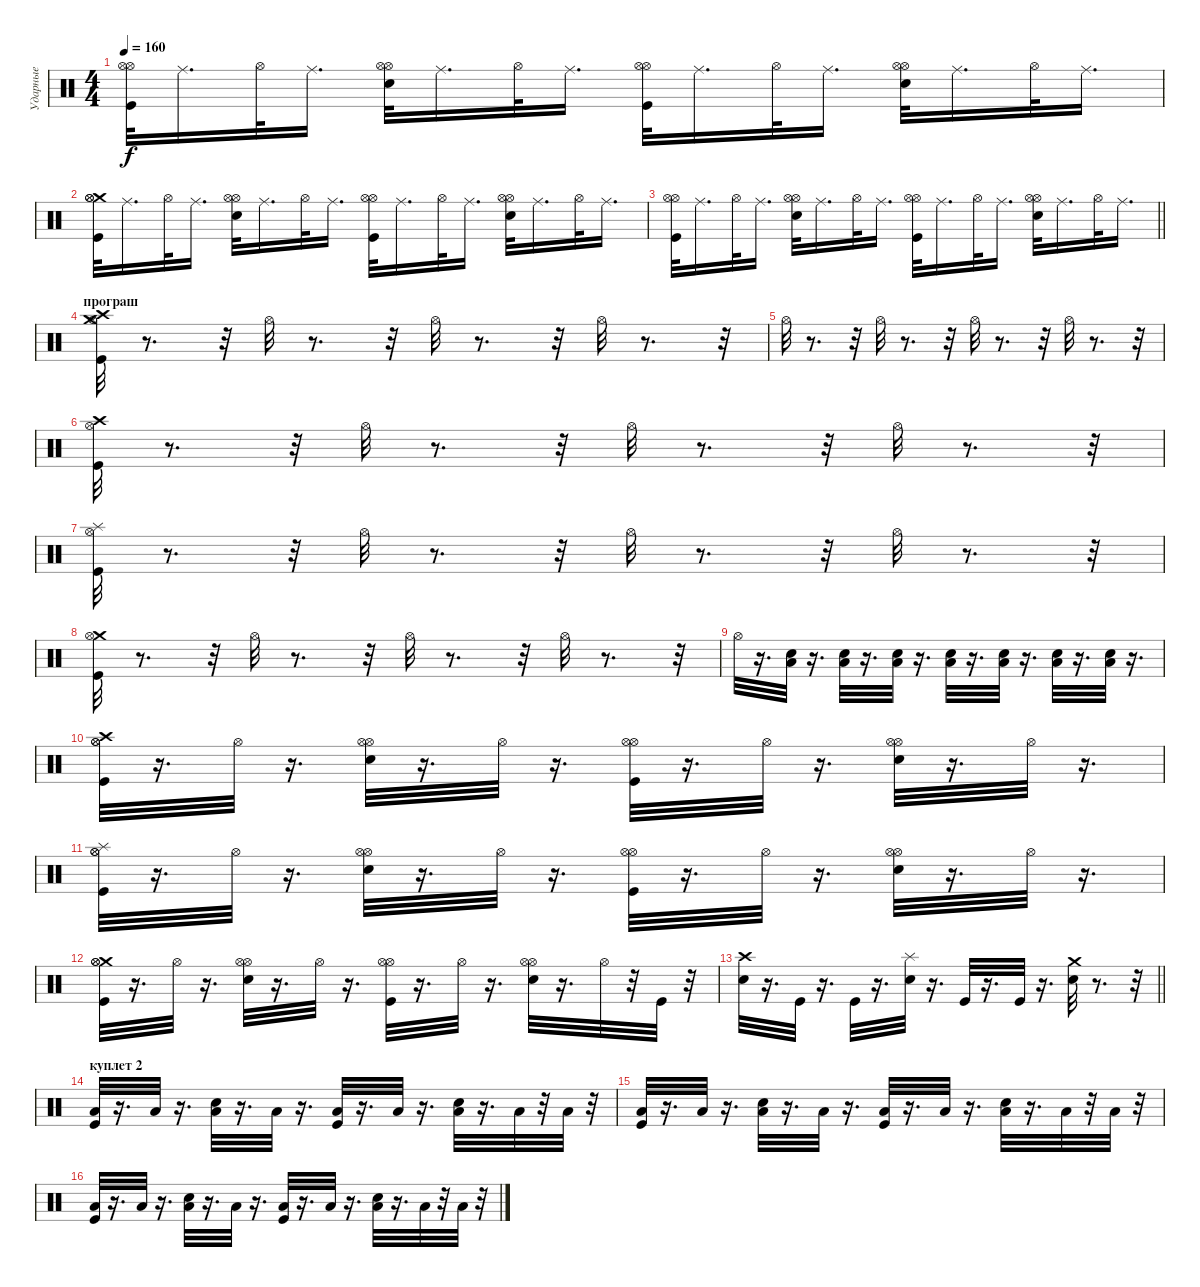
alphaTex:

\track ("Ударные" "Ударные") {instrument percussion}
\staff {score}
\articulation defaults
\ts (4 4)
\tempo 160
\clef neutral
\ks c
("Kick (hit)" "Hi-Hat (open)" "Hi-Hat (open)").32{dy f} "Ride (middle)".16{d} "Hi-Hat (open)".32 "Ride (middle)".16{d} ("Snare (hit) 2" "Hi-Hat (open)" "Hi-Hat (open)").32 "Ride (middle)".16{d} "Hi-Hat (open)".32 "Ride (middle)".16{d} ("Hi-Hat (open)" "Kick (hit)" "Hi-Hat (open)").32 "Ride (middle)".16{d} "Hi-Hat (open)".32 "Ride (middle)".16{d} ("Hi-Hat (open)" "Snare (hit) 2" "Hi-Hat (open)").32 "Ride (middle)".16{d} "Hi-Hat (open)".32 "Ride (middle)".16{d} |
("Crash medium (hit)" "Kick (hit)" "Hi-Hat (open)" "Hi-Hat (open)").32 "Ride (middle)".16{d} "Hi-Hat (open)".32 "Ride (middle)".16{d} ("Hi-Hat (open)" "Hi-Hat (open)" "Snare (hit) 2").32 "Ride (middle)".16{d} "Hi-Hat (open)".32 "Ride (middle)".16{d} ("Kick (hit)" "Hi-Hat (open)" "Hi-Hat (open)").32 "Ride (middle)".16{d} "Hi-Hat (open)".32 "Ride (middle)".16{d} ("Snare (hit) 2" "Hi-Hat (open)" "Hi-Hat (open)").32 "Ride (middle)".16{d} "Hi-Hat (open)".32 "Ride (middle)".16{d} |
\barLineRight lightlight
("Kick (hit)" "Hi-Hat (open)" "Hi-Hat (open)").32 "Ride (middle)".16{d} "Hi-Hat (open)".32 "Ride (middle)".16{d} ("Hi-Hat (open)" "Snare (hit) 2" "Hi-Hat (open)").32 "Ride (middle)".16{d} "Hi-Hat (open)".32 "Ride (middle)".16{d} ("Kick (hit)" "Hi-Hat (open)" "Hi-Hat (open)").32 "Ride (middle)".16{d} "Hi-Hat (open)".32 "Ride (middle)".16{d} ("Snare (hit) 2" "Hi-Hat (open)" "Hi-Hat (open)").32 "Ride (middle)".16{d} "Hi-Hat (open)".32 "Ride (middle)".16{d} |
\section ("" "програш")
("Hi-Hat (open)" "Crash medium (hit)" "Crash high (hit)" "Kick (hit)").32 r.8{d} r.32 "Hi-Hat (open)".32 r.8{d} r.32 "Hi-Hat (open)".32 r.8{d} r.32 "Hi-Hat (open)".32 r.8{d} r.32 |
"Hi-Hat (open)".32 r.8{d} r.32 "Hi-Hat (open)".32 r.8{d} r.32 "Hi-Hat (open)".32 r.8{d} r.32 "Hi-Hat (open)".32 r.8{d} r.32 |
("Kick (hit)" "Crash high (hit)" "Hi-Hat (open)").32 r.8{d} r.32 "Hi-Hat (open)".32 r.8{d} r.32 "Hi-Hat (open)".32 r.8{d} r.32 "Hi-Hat (open)".32 r.8{d} r.32 |
("Kick (hit)" "Splash (hit)" "Hi-Hat (open)").32 r.8{d} r.32 "Hi-Hat (open)".32 r.8{d} r.32 "Hi-Hat (open)".32 r.8{d} r.32 "Hi-Hat (open)".32 r.8{d} r.32 |
("Kick (hit)" "Crash medium (hit)" "Hi-Hat (open)").32 r.8{d} r.32 "Hi-Hat (open)".32 r.8{d} r.32 "Hi-Hat (open)".32 r.8{d} r.32 "Hi-Hat (open)".32 r.8{d} r.32 |
"Hi-Hat (open)".32 r.16{d} ("Snare (hit) 2" "Low Floor Tom (hit)").32 r.16{d} ("Snare (hit) 2" "Low Floor Tom (hit)").32 r.16{d} ("Low Floor Tom (hit)" "Snare (hit) 2").32 r.16{d} ("Snare (hit) 2" "Low Floor Tom (hit)").32 r.16{d} ("Snare (hit) 2" "Low Floor Tom (hit)").32 r.16{d} ("Low Floor Tom (hit)" "Snare (hit) 2").32 r.16{d} ("Snare (hit) 2" "Low Floor Tom (hit)").32 r.16{d} |
("Kick (hit)" "Crash high (hit)" "Hi-Hat (open)" "Hi-Hat (open)").32 r.16{d} "Hi-Hat (open)".32 r.16{d} ("Snare (hit) 2" "Hi-Hat (open)" "Hi-Hat (open)").32 r.16{d} "Hi-Hat (open)".32 r.16{d} ("Kick (hit)" "Hi-Hat (open)" "Hi-Hat (open)").32 r.16{d} "Hi-Hat (open)".32 r.16{d} ("Snare (hit) 2" "Hi-Hat (open)" "Hi-Hat (open)").32 r.16{d} "Hi-Hat (open)".32 r.16{d} |
("Kick (hit)" "Splash (hit)" "Hi-Hat (open)" "Hi-Hat (open)").32 r.16{d} "Hi-Hat (open)".32 r.16{d} ("Snare (hit) 2" "Hi-Hat (open)" "Hi-Hat (open)").32 r.16{d} "Hi-Hat (open)".32 r.16{d} ("Kick (hit)" "Hi-Hat (open)" "Hi-Hat (open)").32 r.16{d} "Hi-Hat (open)".32 r.16{d} ("Snare (hit) 2" "Hi-Hat (open)" "Hi-Hat (open)").32 r.16{d} "Hi-Hat (open)".32 r.16{d} |
("Kick (hit)" "Crash medium (hit)" "Hi-Hat (open)" "Hi-Hat (open)").32 r.16{d} "Hi-Hat (open)".32 r.16{d} ("Snare (hit) 2" "Hi-Hat (open)" "Hi-Hat (open)").32 r.16{d} "Hi-Hat (open)".32 r.16{d} ("Kick (hit)" "Hi-Hat (open)" "Hi-Hat (open)").32 r.16{d} "Hi-Hat (open)".32 r.16{d} ("Snare (hit) 2" "Hi-Hat (open)" "Hi-Hat (open)").32 r.16{d} "Hi-Hat (open)".32 r.32 "Kick (hit)".32 r.32 |
\barLineRight lightlight
("Crash high (hit)" "Snare (hit) 2").32 r.16{d} "Kick (hit)".32 r.16{d} "Kick (hit)".32 r.16{d} ("Splash (hit)" "Snare (hit) 2").32 r.16{d} "Kick (hit)".32 r.16{d} "Kick (hit)".32 r.16{d} ("Crash medium (hit)" "Snare (hit) 2").32 r.8{d} r.32 |
\section ("" "куплет 2")
("Kick (hit)" "Low Floor Tom (hit)").32 r.16{d} "Low Floor Tom (hit)".32 r.16{d} ("Low Floor Tom (hit)" "Snare (hit) 2").32 r.16{d} "Low Floor Tom (hit)".32 r.16{d} ("Kick (hit)" "Low Floor Tom (hit)").32 r.16{d} "Low Floor Tom (hit)".32 r.16{d} ("Low Floor Tom (hit)" "Snare (hit) 2").32 r.16{d} "Low Floor Tom (hit)".32 r.32 "Low Floor Tom (hit)".32 r.32 |
("Kick (hit)" "Low Floor Tom (hit)").32 r.16{d} "Low Floor Tom (hit)".32 r.16{d} ("Low Floor Tom (hit)" "Snare (hit) 2").32 r.16{d} "Low Floor Tom (hit)".32 r.16{d} ("Low Floor Tom (hit)" "Kick (hit)").32 r.16{d} "Low Floor Tom (hit)".32 r.16{d} ("Snare (hit) 2" "Low Floor Tom (hit)").32 r.16{d} "Low Floor Tom (hit)".32 r.32 "Low Floor Tom (hit)".32 r.32 |
("Kick (hit)" "Low Floor Tom (hit)").32 r.16{d} "Low Floor Tom (hit)".32 r.16{d} ("Low Floor Tom (hit)" "Snare (hit) 2").32 r.16{d} "Low Floor Tom (hit)".32 r.16{d} ("Kick (hit)" "Low Floor Tom (hit)").32 r.16{d} "Low Floor Tom (hit)".32 r.16{d} ("Low Floor Tom (hit)" "Snare (hit) 2").32 r.16{d} "Low Floor Tom (hit)".32 r.32 "Low Floor Tom (hit)".32 r.32
